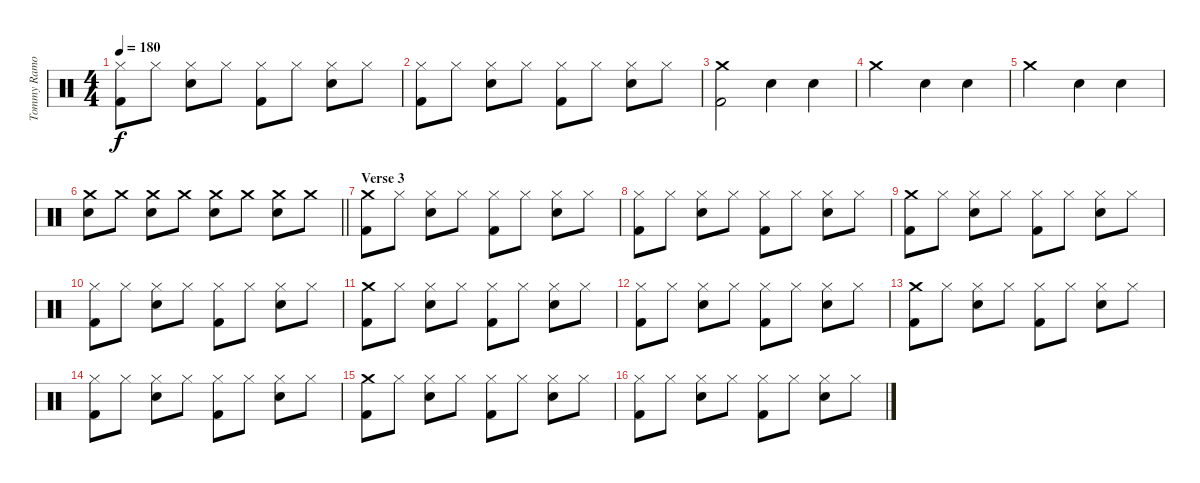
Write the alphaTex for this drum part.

\track ("Tommy Ramone" "Tommy Ramo") {instrument percussion}
\staff {score}
\articulation defaults
\ts (4 4)
\tempo 180
\clef neutral
\ks c
("Hi-Hat (closed)" "Kick (hit) 2").8{dy f} "Hi-Hat (closed)".8 ("Hi-Hat (closed)" "Snare (hit) 2").8 "Hi-Hat (closed)".8 ("Hi-Hat (closed)" "Kick (hit) 2").8 "Hi-Hat (closed)".8 ("Hi-Hat (closed)" "Snare (hit) 2").8 "Hi-Hat (closed)".8 |
("Hi-Hat (closed)" "Kick (hit) 2").8 "Hi-Hat (closed)".8 ("Hi-Hat (closed)" "Snare (hit) 2").8 "Hi-Hat (closed)".8 ("Hi-Hat (closed)" "Kick (hit) 2").8 "Hi-Hat (closed)".8 ("Hi-Hat (closed)" "Snare (hit) 2").8 "Hi-Hat (closed)".8 |
("Crash medium (hit)" "Kick (hit) 2").2 "Snare (hit) 2".4 "Snare (hit) 2".4 |
"Crash medium (hit)".2 "Snare (hit) 2".4 "Snare (hit) 2".4 |
"Crash medium (hit)".2 "Snare (hit) 2".4 "Snare (hit) 2".4 |
\barLineRight lightlight
("Crash medium (hit)" "Snare (hit) 2").8 "Crash medium (hit)".8 ("Crash medium (hit)" "Snare (hit) 2").8 "Crash medium (hit)".8 ("Crash medium (hit)" "Snare (hit) 2").8 "Crash medium (hit)".8 ("Crash medium (hit)" "Snare (hit) 2").8 "Crash medium (hit)".8 |
\section ("" "Verse 3")
("Crash medium (hit)" "Kick (hit) 2").8 "Hi-Hat (closed)".8 ("Hi-Hat (closed)" "Snare (hit) 2").8 "Hi-Hat (closed)".8 ("Hi-Hat (closed)" "Kick (hit) 2").8 "Hi-Hat (closed)".8 ("Hi-Hat (closed)" "Snare (hit) 2").8 "Hi-Hat (closed)".8 |
("Hi-Hat (closed)" "Kick (hit) 2").8 "Hi-Hat (closed)".8 ("Hi-Hat (closed)" "Snare (hit) 2").8 "Hi-Hat (closed)".8 ("Hi-Hat (closed)" "Kick (hit) 2").8 "Hi-Hat (closed)".8 ("Hi-Hat (closed)" "Snare (hit) 2").8 "Hi-Hat (closed)".8 |
("Crash medium (hit)" "Kick (hit) 2").8 "Hi-Hat (closed)".8 ("Hi-Hat (closed)" "Snare (hit) 2").8 "Hi-Hat (closed)".8 ("Hi-Hat (closed)" "Kick (hit) 2").8 "Hi-Hat (closed)".8 ("Hi-Hat (closed)" "Snare (hit) 2").8 "Hi-Hat (closed)".8 |
("Hi-Hat (closed)" "Kick (hit) 2").8 "Hi-Hat (closed)".8 ("Hi-Hat (closed)" "Snare (hit) 2").8 "Hi-Hat (closed)".8 ("Hi-Hat (closed)" "Kick (hit) 2").8 "Hi-Hat (closed)".8 ("Hi-Hat (closed)" "Snare (hit) 2").8 "Hi-Hat (closed)".8 |
("Crash medium (hit)" "Kick (hit) 2").8 "Hi-Hat (closed)".8 ("Hi-Hat (closed)" "Snare (hit) 2").8 "Hi-Hat (closed)".8 ("Hi-Hat (closed)" "Kick (hit) 2").8 "Hi-Hat (closed)".8 ("Hi-Hat (closed)" "Snare (hit) 2").8 "Hi-Hat (closed)".8 |
("Hi-Hat (closed)" "Kick (hit) 2").8 "Hi-Hat (closed)".8 ("Hi-Hat (closed)" "Snare (hit) 2").8 "Hi-Hat (closed)".8 ("Hi-Hat (closed)" "Kick (hit) 2").8 "Hi-Hat (closed)".8 ("Hi-Hat (closed)" "Snare (hit) 2").8 "Hi-Hat (closed)".8 |
("Crash medium (hit)" "Kick (hit) 2").8 "Hi-Hat (closed)".8 ("Hi-Hat (closed)" "Snare (hit) 2").8 "Hi-Hat (closed)".8 ("Hi-Hat (closed)" "Kick (hit) 2").8 "Hi-Hat (closed)".8 ("Hi-Hat (closed)" "Snare (hit) 2").8 "Hi-Hat (closed)".8 |
("Hi-Hat (closed)" "Kick (hit) 2").8 "Hi-Hat (closed)".8 ("Hi-Hat (closed)" "Snare (hit) 2").8 "Hi-Hat (closed)".8 ("Hi-Hat (closed)" "Kick (hit) 2").8 "Hi-Hat (closed)".8 ("Hi-Hat (closed)" "Snare (hit) 2").8 "Hi-Hat (closed)".8 |
("Crash medium (hit)" "Kick (hit) 2").8 "Hi-Hat (closed)".8 ("Hi-Hat (closed)" "Snare (hit) 2").8 "Hi-Hat (closed)".8 ("Hi-Hat (closed)" "Kick (hit) 2").8 "Hi-Hat (closed)".8 ("Hi-Hat (closed)" "Snare (hit) 2").8 "Hi-Hat (closed)".8 |
("Hi-Hat (closed)" "Kick (hit) 2").8 "Hi-Hat (closed)".8 ("Hi-Hat (closed)" "Snare (hit) 2").8 "Hi-Hat (closed)".8 ("Hi-Hat (closed)" "Kick (hit) 2").8 "Hi-Hat (closed)".8 ("Hi-Hat (closed)" "Snare (hit) 2").8 "Hi-Hat (closed)".8
